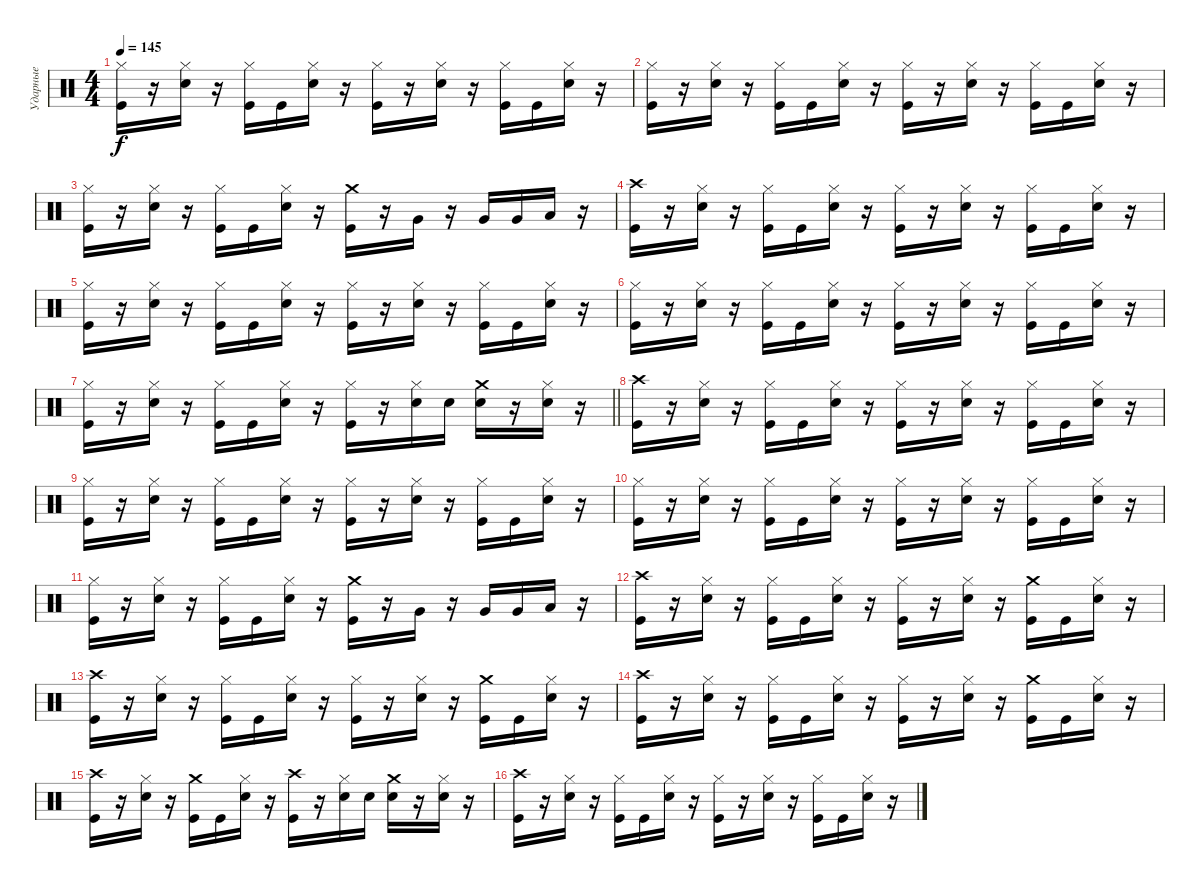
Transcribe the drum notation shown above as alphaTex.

\track ("Ударные" "Ударные") {instrument percussion}
\staff {score}
\articulation defaults
\ts (4 4)
\tempo 145
\clef neutral
\ks c
("Hi-Hat (closed)" "Kick (hit)").16{dy f} r.16 ("Hi-Hat (closed)" "Electric Snare (hit)").16 r.16 ("Hi-Hat (closed)" "Kick (hit)").16 "Kick (hit)".16 ("Hi-Hat (closed)" "Electric Snare (hit)").16 r.16 ("Hi-Hat (closed)" "Kick (hit)").16 r.16 ("Hi-Hat (closed)" "Electric Snare (hit)").16 r.16 ("Hi-Hat (closed)" "Kick (hit)").16 "Kick (hit)".16 ("Hi-Hat (closed)" "Electric Snare (hit)").16 r.16 |
("Hi-Hat (closed)" "Kick (hit)").16 r.16 ("Hi-Hat (closed)" "Electric Snare (hit)").16 r.16 ("Hi-Hat (closed)" "Kick (hit)").16 "Kick (hit)".16 ("Hi-Hat (closed)" "Electric Snare (hit)").16 r.16 ("Hi-Hat (closed)" "Kick (hit)").16 r.16 ("Hi-Hat (closed)" "Electric Snare (hit)").16 r.16 ("Hi-Hat (closed)" "Kick (hit)").16 "Kick (hit)".16 ("Hi-Hat (closed)" "Electric Snare (hit)").16 r.16 |
("Hi-Hat (closed)" "Kick (hit)").16 r.16 ("Hi-Hat (closed)" "Electric Snare (hit)").16 r.16 ("Hi-Hat (closed)" "Kick (hit)").16 "Kick (hit)".16 ("Hi-Hat (closed)" "Electric Snare (hit)").16 r.16 ("Crash medium (hit)" "Kick (hit)").16 r.16 "Very Low Tom (hit)".16 r.16 "Very Low Tom (hit)".16 "Very Low Tom (hit)".16 "Low Floor Tom (hit)".16 r.16 |
("Crash high (hit)" "Kick (hit)").16 r.16 ("Hi-Hat (closed)" "Electric Snare (hit)").16 r.16 ("Hi-Hat (closed)" "Kick (hit)").16 "Kick (hit)".16 ("Hi-Hat (closed)" "Electric Snare (hit)").16 r.16 ("Hi-Hat (closed)" "Kick (hit)").16 r.16 ("Hi-Hat (closed)" "Electric Snare (hit)").16 r.16 ("Hi-Hat (closed)" "Kick (hit)").16 "Kick (hit)".16 ("Hi-Hat (closed)" "Electric Snare (hit)").16 r.16 |
("Hi-Hat (closed)" "Kick (hit)").16 r.16 ("Hi-Hat (closed)" "Electric Snare (hit)").16 r.16 ("Hi-Hat (closed)" "Kick (hit)").16 "Kick (hit)".16 ("Hi-Hat (closed)" "Electric Snare (hit)").16 r.16 ("Hi-Hat (closed)" "Kick (hit)").16 r.16 ("Hi-Hat (closed)" "Electric Snare (hit)").16 r.16 ("Hi-Hat (closed)" "Kick (hit)").16 "Kick (hit)".16 ("Hi-Hat (closed)" "Electric Snare (hit)").16 r.16 |
("Hi-Hat (closed)" "Kick (hit)").16 r.16 ("Hi-Hat (closed)" "Electric Snare (hit)").16 r.16 ("Hi-Hat (closed)" "Kick (hit)").16 "Kick (hit)".16 ("Hi-Hat (closed)" "Electric Snare (hit)").16 r.16 ("Hi-Hat (closed)" "Kick (hit)").16 r.16 ("Hi-Hat (closed)" "Electric Snare (hit)").16 r.16 ("Hi-Hat (closed)" "Kick (hit)").16 "Kick (hit)".16 ("Hi-Hat (closed)" "Electric Snare (hit)").16 r.16 |
\barLineRight lightlight
("Hi-Hat (closed)" "Kick (hit)").16 r.16 ("Hi-Hat (closed)" "Electric Snare (hit)").16 r.16 ("Hi-Hat (closed)" "Kick (hit)").16 "Kick (hit)".16 ("Hi-Hat (closed)" "Electric Snare (hit)").16 r.16 ("Hi-Hat (closed)" "Kick (hit)").16 r.16 ("Hi-Hat (closed)" "Electric Snare (hit)").16 "Electric Snare (hit)".16 ("Crash medium (hit)" "Electric Snare (hit)").16 r.16 ("Hi-Hat (closed)" "Electric Snare (hit)").16 r.16 |
("Crash high (hit)" "Kick (hit)").16 r.16 ("Hi-Hat (closed)" "Electric Snare (hit)").16 r.16 ("Hi-Hat (closed)" "Kick (hit)").16 "Kick (hit)".16 ("Hi-Hat (closed)" "Electric Snare (hit)").16 r.16 ("Hi-Hat (closed)" "Kick (hit)").16 r.16 ("Hi-Hat (closed)" "Electric Snare (hit)").16 r.16 ("Hi-Hat (closed)" "Kick (hit)").16 "Kick (hit)".16 ("Hi-Hat (closed)" "Electric Snare (hit)").16 r.16 |
("Hi-Hat (closed)" "Kick (hit)").16 r.16 ("Hi-Hat (closed)" "Electric Snare (hit)").16 r.16 ("Hi-Hat (closed)" "Kick (hit)").16 "Kick (hit)".16 ("Hi-Hat (closed)" "Electric Snare (hit)").16 r.16 ("Hi-Hat (closed)" "Kick (hit)").16 r.16 ("Hi-Hat (closed)" "Electric Snare (hit)").16 r.16 ("Hi-Hat (closed)" "Kick (hit)").16 "Kick (hit)".16 ("Hi-Hat (closed)" "Electric Snare (hit)").16 r.16 |
("Hi-Hat (closed)" "Kick (hit)").16 r.16 ("Hi-Hat (closed)" "Electric Snare (hit)").16 r.16 ("Hi-Hat (closed)" "Kick (hit)").16 "Kick (hit)".16 ("Hi-Hat (closed)" "Electric Snare (hit)").16 r.16 ("Hi-Hat (closed)" "Kick (hit)").16 r.16 ("Hi-Hat (closed)" "Electric Snare (hit)").16 r.16 ("Hi-Hat (closed)" "Kick (hit)").16 "Kick (hit)".16 ("Hi-Hat (closed)" "Electric Snare (hit)").16 r.16 |
("Hi-Hat (closed)" "Kick (hit)").16 r.16 ("Hi-Hat (closed)" "Electric Snare (hit)").16 r.16 ("Hi-Hat (closed)" "Kick (hit)").16 "Kick (hit)".16 ("Hi-Hat (closed)" "Electric Snare (hit)").16 r.16 ("Crash medium (hit)" "Kick (hit)").16 r.16 "Very Low Tom (hit)".16 r.16 "Very Low Tom (hit)".16 "Very Low Tom (hit)".16 "Low Floor Tom (hit)".16 r.16 |
("Crash high (hit)" "Kick (hit)").16 r.16 ("Hi-Hat (closed)" "Electric Snare (hit)").16 r.16 ("Hi-Hat (closed)" "Kick (hit)").16 "Kick (hit)".16 ("Hi-Hat (closed)" "Electric Snare (hit)").16 r.16 ("Hi-Hat (closed)" "Kick (hit)").16 r.16 ("Hi-Hat (closed)" "Electric Snare (hit)").16 r.16 ("Crash medium (hit)" "Kick (hit)").16 "Kick (hit)".16 ("Hi-Hat (closed)" "Electric Snare (hit)").16 r.16 |
("Crash high (hit)" "Kick (hit)").16 r.16 ("Hi-Hat (closed)" "Electric Snare (hit)").16 r.16 ("Hi-Hat (closed)" "Kick (hit)").16 "Kick (hit)".16 ("Hi-Hat (closed)" "Electric Snare (hit)").16 r.16 ("Hi-Hat (closed)" "Kick (hit)").16 r.16 ("Hi-Hat (closed)" "Electric Snare (hit)").16 r.16 ("Crash medium (hit)" "Kick (hit)").16 "Kick (hit)".16 ("Hi-Hat (closed)" "Electric Snare (hit)").16 r.16 |
("Crash high (hit)" "Kick (hit)").16 r.16 ("Hi-Hat (closed)" "Electric Snare (hit)").16 r.16 ("Hi-Hat (closed)" "Kick (hit)").16 "Kick (hit)".16 ("Hi-Hat (closed)" "Electric Snare (hit)").16 r.16 ("Hi-Hat (closed)" "Kick (hit)").16 r.16 ("Hi-Hat (closed)" "Electric Snare (hit)").16 r.16 ("Crash medium (hit)" "Kick (hit)").16 "Kick (hit)".16 ("Hi-Hat (closed)" "Electric Snare (hit)").16 r.16 |
("Crash high (hit)" "Kick (hit)").16 r.16 ("Hi-Hat (closed)" "Electric Snare (hit)").16 r.16 ("Crash medium (hit)" "Kick (hit)").16 "Kick (hit)".16 ("Hi-Hat (closed)" "Electric Snare (hit)").16 r.16 ("Crash high (hit)" "Kick (hit)").16 r.16 ("Hi-Hat (closed)" "Electric Snare (hit)").16 "Electric Snare (hit)".16 ("Crash medium (hit)" "Electric Snare (hit)").16 r.16 ("Hi-Hat (closed)" "Electric Snare (hit)").16 r.16 |
("Crash high (hit)" "Kick (hit)").16 r.16 ("Hi-Hat (closed)" "Electric Snare (hit)").16 r.16 ("Hi-Hat (closed)" "Kick (hit)").16 "Kick (hit)".16 ("Hi-Hat (closed)" "Electric Snare (hit)").16 r.16 ("Hi-Hat (closed)" "Kick (hit)").16 r.16 ("Hi-Hat (closed)" "Electric Snare (hit)").16 r.16 ("Hi-Hat (closed)" "Kick (hit)").16 "Kick (hit)".16 ("Hi-Hat (closed)" "Electric Snare (hit)").16 r.16
